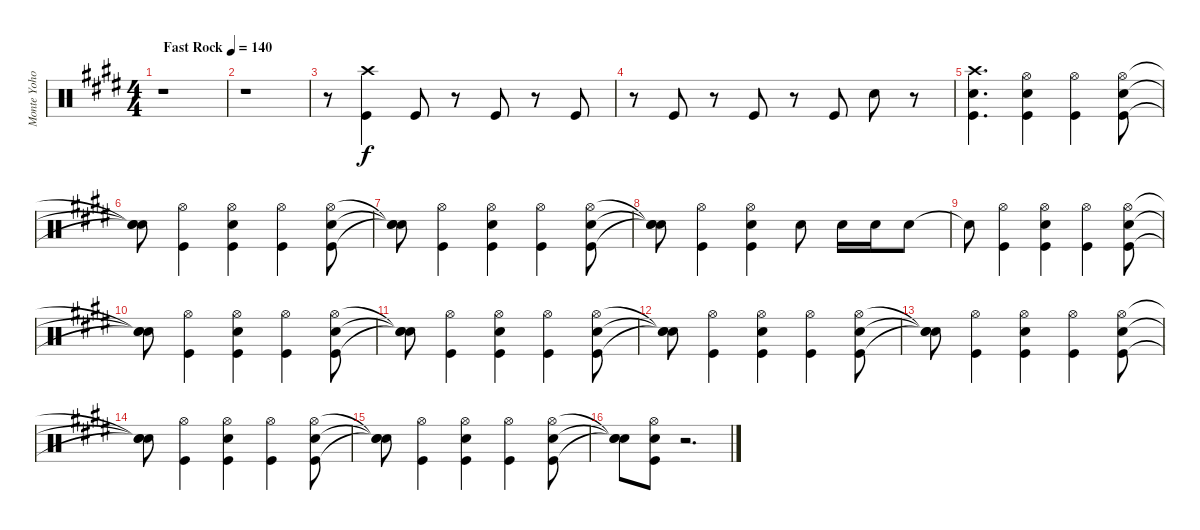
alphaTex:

\track ("Monte Yoho Drums" "Monte Yoho") {instrument percussion}
\staff {score}
\articulation defaults
\ts (4 4)
\tempo (140 "Fast Rock")
\clef neutral
\ks e
r.1{dy f} |
r.1 |
r.8 ("Crash high (hit)" "Kick (hit)").4 "Kick (hit)".8 r.8 "Kick (hit)".8 r.8 "Kick (hit)".8 |
r.8 "Kick (hit)".8 r.8 "Kick (hit)".8 r.8 "Kick (hit)".8 "Snare (hit) 2".8 r.8 |
("Crash high (hit)" "Snare (hit) 2" "Kick (hit)").4{d} ("Hi-Hat (open)" "Snare (hit) 2" "Kick (hit)").4 ("Hi-Hat (open)" "Kick (hit)").4 ("Hi-Hat (open)" "Snare (hit) 2" "Kick (hit)").8 |
("Snare (hit)"{t} "Snare (hit)"{t} "Snare (hit)"{t}).8 ("Hi-Hat (open)" "Kick (hit)").4 ("Hi-Hat (open)" "Snare (hit) 2" "Kick (hit)").4 ("Hi-Hat (open)" "Kick (hit)").4 ("Hi-Hat (open)" "Snare (hit) 2" "Kick (hit)").8 |
("Snare (hit)"{t} "Snare (hit)"{t} "Snare (hit)"{t}).8 ("Hi-Hat (open)" "Kick (hit)").4 ("Hi-Hat (open)" "Snare (hit) 2" "Kick (hit)").4 ("Hi-Hat (open)" "Kick (hit)").4 ("Hi-Hat (open)" "Snare (hit) 2" "Kick (hit)").8 |
("Snare (hit)"{t} "Snare (hit)"{t} "Snare (hit)"{t}).8 ("Hi-Hat (open)" "Kick (hit)").4 ("Hi-Hat (open)" "Snare (hit) 2" "Kick (hit)").4 "Snare (hit) 2".8 "Snare (hit) 2".16 "Snare (hit) 2".16 "Snare (hit) 2".8 |
"Snare (hit)"{t}.8 ("Hi-Hat (open)" "Kick (hit)").4 ("Hi-Hat (open)" "Snare (hit) 2" "Kick (hit)").4 ("Hi-Hat (open)" "Kick (hit)").4 ("Hi-Hat (open)" "Snare (hit) 2" "Kick (hit)").8 |
("Snare (hit)"{t} "Snare (hit)"{t} "Snare (hit)"{t}).8 ("Hi-Hat (open)" "Kick (hit)").4 ("Hi-Hat (open)" "Snare (hit) 2" "Kick (hit)").4 ("Hi-Hat (open)" "Kick (hit)").4 ("Hi-Hat (open)" "Snare (hit) 2" "Kick (hit)").8 |
("Snare (hit)"{t} "Snare (hit)"{t} "Snare (hit)"{t}).8 ("Hi-Hat (open)" "Kick (hit)").4 ("Hi-Hat (open)" "Snare (hit) 2" "Kick (hit)").4 ("Hi-Hat (open)" "Kick (hit)").4 ("Hi-Hat (open)" "Snare (hit) 2" "Kick (hit)").8 |
("Snare (hit)"{t} "Snare (hit)"{t} "Snare (hit)"{t}).8 ("Hi-Hat (open)" "Kick (hit)").4 ("Hi-Hat (open)" "Snare (hit) 2" "Kick (hit)").4 ("Hi-Hat (open)" "Kick (hit)").4 ("Hi-Hat (open)" "Snare (hit) 2" "Kick (hit)").8 |
("Snare (hit)"{t} "Snare (hit)"{t} "Snare (hit)"{t}).8 ("Hi-Hat (open)" "Kick (hit)").4 ("Hi-Hat (open)" "Snare (hit) 2" "Kick (hit)").4 ("Hi-Hat (open)" "Kick (hit)").4 ("Hi-Hat (open)" "Snare (hit) 2" "Kick (hit)").8 |
("Snare (hit)"{t} "Snare (hit)"{t} "Snare (hit)"{t}).8 ("Hi-Hat (open)" "Kick (hit)").4 ("Hi-Hat (open)" "Snare (hit) 2" "Kick (hit)").4 ("Hi-Hat (open)" "Kick (hit)").4 ("Hi-Hat (open)" "Snare (hit) 2" "Kick (hit)").8 |
("Snare (hit)"{t} "Snare (hit)"{t} "Snare (hit)"{t}).8 ("Hi-Hat (open)" "Kick (hit)").4 ("Hi-Hat (open)" "Snare (hit) 2" "Kick (hit)").4 ("Hi-Hat (open)" "Kick (hit)").4 ("Hi-Hat (open)" "Snare (hit) 2" "Kick (hit)").8 |
("Snare (hit)"{t} "Snare (hit)"{t} "Snare (hit)"{t}).8 ("Hi-Hat (open)" "Snare (hit) 2" "Kick (hit)").8 r.2{d}
